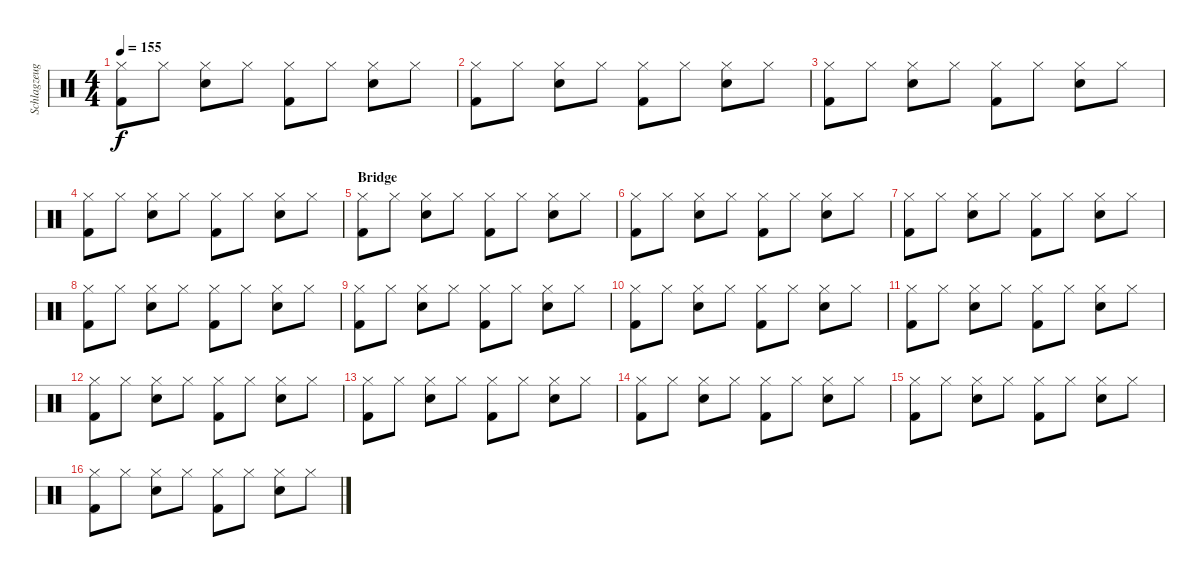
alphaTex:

\track ("Schlagzeug - Bela B." "Schlagzeug") {instrument percussion}
\staff {score}
\articulation defaults
\ts (4 4)
\tempo 155
\clef neutral
\ks c
("Hi-Hat (closed)" "Kick (hit) 2").8{dy f} "Hi-Hat (closed)".8 ("Hi-Hat (closed)" "Snare (hit) 2").8 "Hi-Hat (closed)".8 ("Hi-Hat (closed)" "Kick (hit) 2").8 "Hi-Hat (closed)".8 ("Hi-Hat (closed)" "Snare (hit) 2").8 "Hi-Hat (closed)".8 |
("Hi-Hat (closed)" "Kick (hit) 2").8 "Hi-Hat (closed)".8 ("Hi-Hat (closed)" "Snare (hit) 2").8 "Hi-Hat (closed)".8 ("Hi-Hat (closed)" "Kick (hit) 2").8 "Hi-Hat (closed)".8 ("Hi-Hat (closed)" "Snare (hit) 2").8 "Hi-Hat (closed)".8 |
("Hi-Hat (closed)" "Kick (hit) 2").8 "Hi-Hat (closed)".8 ("Hi-Hat (closed)" "Snare (hit) 2").8 "Hi-Hat (closed)".8 ("Hi-Hat (closed)" "Kick (hit) 2").8 "Hi-Hat (closed)".8 ("Hi-Hat (closed)" "Snare (hit) 2").8 "Hi-Hat (closed)".8 |
("Hi-Hat (closed)" "Kick (hit) 2").8 "Hi-Hat (closed)".8 ("Hi-Hat (closed)" "Snare (hit) 2").8 "Hi-Hat (closed)".8 ("Hi-Hat (closed)" "Kick (hit) 2").8 "Hi-Hat (closed)".8 ("Hi-Hat (closed)" "Snare (hit) 2").8 "Hi-Hat (closed)".8 |
\section ("" "Bridge")
("Hi-Hat (closed)" "Kick (hit) 2").8 "Hi-Hat (closed)".8 ("Hi-Hat (closed)" "Snare (hit) 2").8 "Hi-Hat (closed)".8 ("Hi-Hat (closed)" "Kick (hit) 2").8 "Hi-Hat (closed)".8 ("Hi-Hat (closed)" "Snare (hit) 2").8 "Hi-Hat (closed)".8 |
("Hi-Hat (closed)" "Kick (hit) 2").8 "Hi-Hat (closed)".8 ("Hi-Hat (closed)" "Snare (hit) 2").8 "Hi-Hat (closed)".8 ("Hi-Hat (closed)" "Kick (hit) 2").8 "Hi-Hat (closed)".8 ("Hi-Hat (closed)" "Snare (hit) 2").8 "Hi-Hat (closed)".8 |
("Hi-Hat (closed)" "Kick (hit) 2").8 "Hi-Hat (closed)".8 ("Hi-Hat (closed)" "Snare (hit) 2").8 "Hi-Hat (closed)".8 ("Hi-Hat (closed)" "Kick (hit) 2").8 "Hi-Hat (closed)".8 ("Hi-Hat (closed)" "Snare (hit) 2").8 "Hi-Hat (closed)".8 |
("Hi-Hat (closed)" "Kick (hit) 2").8 "Hi-Hat (closed)".8 ("Hi-Hat (closed)" "Snare (hit) 2").8 "Hi-Hat (closed)".8 ("Hi-Hat (closed)" "Kick (hit) 2").8 "Hi-Hat (closed)".8 ("Hi-Hat (closed)" "Snare (hit) 2").8 "Hi-Hat (closed)".8 |
("Hi-Hat (closed)" "Kick (hit) 2").8 "Hi-Hat (closed)".8 ("Hi-Hat (closed)" "Snare (hit) 2").8 "Hi-Hat (closed)".8 ("Hi-Hat (closed)" "Kick (hit) 2").8 "Hi-Hat (closed)".8 ("Hi-Hat (closed)" "Snare (hit) 2").8 "Hi-Hat (closed)".8 |
("Hi-Hat (closed)" "Kick (hit) 2").8 "Hi-Hat (closed)".8 ("Hi-Hat (closed)" "Snare (hit) 2").8 "Hi-Hat (closed)".8 ("Hi-Hat (closed)" "Kick (hit) 2").8 "Hi-Hat (closed)".8 ("Hi-Hat (closed)" "Snare (hit) 2").8 "Hi-Hat (closed)".8 |
("Hi-Hat (closed)" "Kick (hit) 2").8 "Hi-Hat (closed)".8 ("Hi-Hat (closed)" "Snare (hit) 2").8 "Hi-Hat (closed)".8 ("Hi-Hat (closed)" "Kick (hit) 2").8 "Hi-Hat (closed)".8 ("Hi-Hat (closed)" "Snare (hit) 2").8 "Hi-Hat (closed)".8 |
("Hi-Hat (closed)" "Kick (hit) 2").8 "Hi-Hat (closed)".8 ("Hi-Hat (closed)" "Snare (hit) 2").8 "Hi-Hat (closed)".8 ("Hi-Hat (closed)" "Kick (hit) 2").8 "Hi-Hat (closed)".8 ("Hi-Hat (closed)" "Snare (hit) 2").8 "Hi-Hat (closed)".8 |
("Hi-Hat (closed)" "Kick (hit) 2").8 "Hi-Hat (closed)".8 ("Hi-Hat (closed)" "Snare (hit) 2").8 "Hi-Hat (closed)".8 ("Hi-Hat (closed)" "Kick (hit) 2").8 "Hi-Hat (closed)".8 ("Hi-Hat (closed)" "Snare (hit) 2").8 "Hi-Hat (closed)".8 |
("Hi-Hat (closed)" "Kick (hit) 2").8 "Hi-Hat (closed)".8 ("Hi-Hat (closed)" "Snare (hit) 2").8 "Hi-Hat (closed)".8 ("Hi-Hat (closed)" "Kick (hit) 2").8 "Hi-Hat (closed)".8 ("Hi-Hat (closed)" "Snare (hit) 2").8 "Hi-Hat (closed)".8 |
("Hi-Hat (closed)" "Kick (hit) 2").8 "Hi-Hat (closed)".8 ("Hi-Hat (closed)" "Snare (hit) 2").8 "Hi-Hat (closed)".8 ("Hi-Hat (closed)" "Kick (hit) 2").8 "Hi-Hat (closed)".8 ("Hi-Hat (closed)" "Snare (hit) 2").8 "Hi-Hat (closed)".8 |
("Hi-Hat (closed)" "Kick (hit) 2").8 "Hi-Hat (closed)".8 ("Hi-Hat (closed)" "Snare (hit) 2").8 "Hi-Hat (closed)".8 ("Hi-Hat (closed)" "Kick (hit) 2").8 "Hi-Hat (closed)".8 ("Hi-Hat (closed)" "Snare (hit) 2").8 "Hi-Hat (closed)".8
